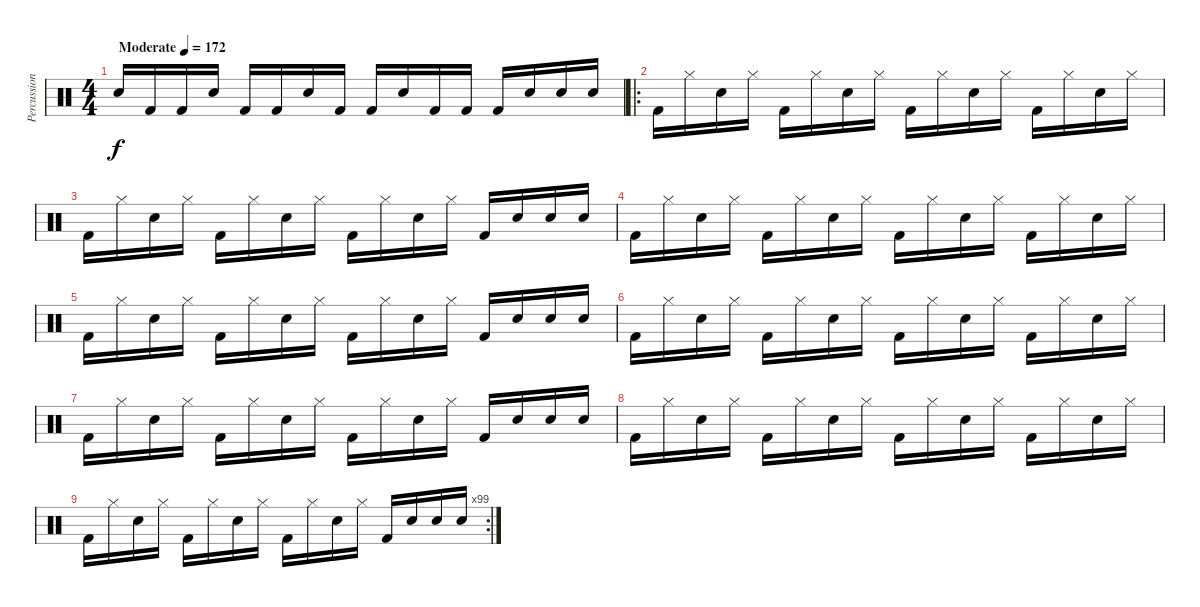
\track ("Percussion" "Percussion") {instrument percussion}
\staff {score}
\articulation defaults
\ts (4 4)
\tempo (172 "Moderate")
\clef neutral
\ks c "Snare (hit) 2".16{dy f} "Kick (hit) 2".16 "Kick (hit) 2".16 "Snare (hit) 2".16 "Kick (hit) 2".16 "Kick (hit) 2".16 "Snare (hit) 2".16 "Kick (hit) 2".16 "Kick (hit) 2".16 "Snare (hit) 2".16 "Kick (hit) 2".16 "Kick (hit) 2".16 "Kick (hit) 2".16 "Snare (hit) 2".16 "Snare (hit) 2".16 "Snare (hit) 2".16
|
\ro "Kick (hit) 2".16 "Hi-Hat (closed)".16 "Snare (hit) 2".16 "Hi-Hat (closed)".16 "Kick (hit) 2".16 "Hi-Hat (closed)".16 "Snare (hit) 2".16 "Hi-Hat (closed)".16 "Kick (hit) 2".16 "Hi-Hat (closed)".16 "Snare (hit) 2".16 "Hi-Hat (closed)".16 "Kick (hit) 2".16 "Hi-Hat (closed)".16 "Snare (hit) 2".16 "Hi-Hat (closed)".16
|
"Kick (hit) 2".16 "Hi-Hat (closed)".16 "Snare (hit) 2".16 "Hi-Hat (closed)".16 "Kick (hit) 2".16 "Hi-Hat (closed)".16 "Snare (hit) 2".16 "Hi-Hat (closed)".16 "Kick (hit) 2".16 "Hi-Hat (closed)".16 "Snare (hit) 2".16 "Hi-Hat (closed)".16 "Kick (hit) 2".16 "Snare (hit) 2".16 "Snare (hit) 2".16 "Snare (hit) 2".16 |
"Kick (hit) 2".16 "Hi-Hat (closed)".16 "Snare (hit) 2".16 "Hi-Hat (closed)".16 "Kick (hit) 2".16 "Hi-Hat (closed)".16 "Snare (hit) 2".16 "Hi-Hat (closed)".16 "Kick (hit) 2".16 "Hi-Hat (closed)".16 "Snare (hit) 2".16 "Hi-Hat (closed)".16 "Kick (hit) 2".16 "Hi-Hat (closed)".16 "Snare (hit) 2".16 "Hi-Hat (closed)".16 |
"Kick (hit) 2".16 "Hi-Hat (closed)".16 "Snare (hit) 2".16 "Hi-Hat (closed)".16 "Kick (hit) 2".16 "Hi-Hat (closed)".16 "Snare (hit) 2".16 "Hi-Hat (closed)".16 "Kick (hit) 2".16 "Hi-Hat (closed)".16 "Snare (hit) 2".16 "Hi-Hat (closed)".16 "Kick (hit) 2".16 "Snare (hit) 2".16 "Snare (hit) 2".16 "Snare (hit) 2".16 |
"Kick (hit) 2".16 "Hi-Hat (closed)".16 "Snare (hit) 2".16 "Hi-Hat (closed)".16 "Kick (hit) 2".16 "Hi-Hat (closed)".16 "Snare (hit) 2".16 "Hi-Hat (closed)".16 "Kick (hit) 2".16 "Hi-Hat (closed)".16 "Snare (hit) 2".16 "Hi-Hat (closed)".16 "Kick (hit) 2".16 "Hi-Hat (closed)".16 "Snare (hit) 2".16 "Hi-Hat (closed)".16 |
"Kick (hit) 2".16 "Hi-Hat (closed)".16 "Snare (hit) 2".16 "Hi-Hat (closed)".16 "Kick (hit) 2".16 "Hi-Hat (closed)".16 "Snare (hit) 2".16 "Hi-Hat (closed)".16 "Kick (hit) 2".16 "Hi-Hat (closed)".16 "Snare (hit) 2".16 "Hi-Hat (closed)".16 "Kick (hit) 2".16 "Snare (hit) 2".16 "Snare (hit) 2".16 "Snare (hit) 2".16 |
"Kick (hit) 2".16 "Hi-Hat (closed)".16 "Snare (hit) 2".16 "Hi-Hat (closed)".16 "Kick (hit) 2".16 "Hi-Hat (closed)".16 "Snare (hit) 2".16 "Hi-Hat (closed)".16 "Kick (hit) 2".16 "Hi-Hat (closed)".16 "Snare (hit) 2".16 "Hi-Hat (closed)".16 "Kick (hit) 2".16 "Hi-Hat (closed)".16 "Snare (hit) 2".16 "Hi-Hat (closed)".16 |
\rc 99 "Kick (hit) 2".16 "Hi-Hat (closed)".16 "Snare (hit) 2".16 "Hi-Hat (closed)".16 "Kick (hit) 2".16 "Hi-Hat (closed)".16 "Snare (hit) 2".16 "Hi-Hat (closed)".16 "Kick (hit) 2".16 "Hi-Hat (closed)".16 "Snare (hit) 2".16 "Hi-Hat (closed)".16 "Kick (hit) 2".16 "Snare (hit) 2".16 "Snare (hit) 2".16 "Snare (hit) 2".16
